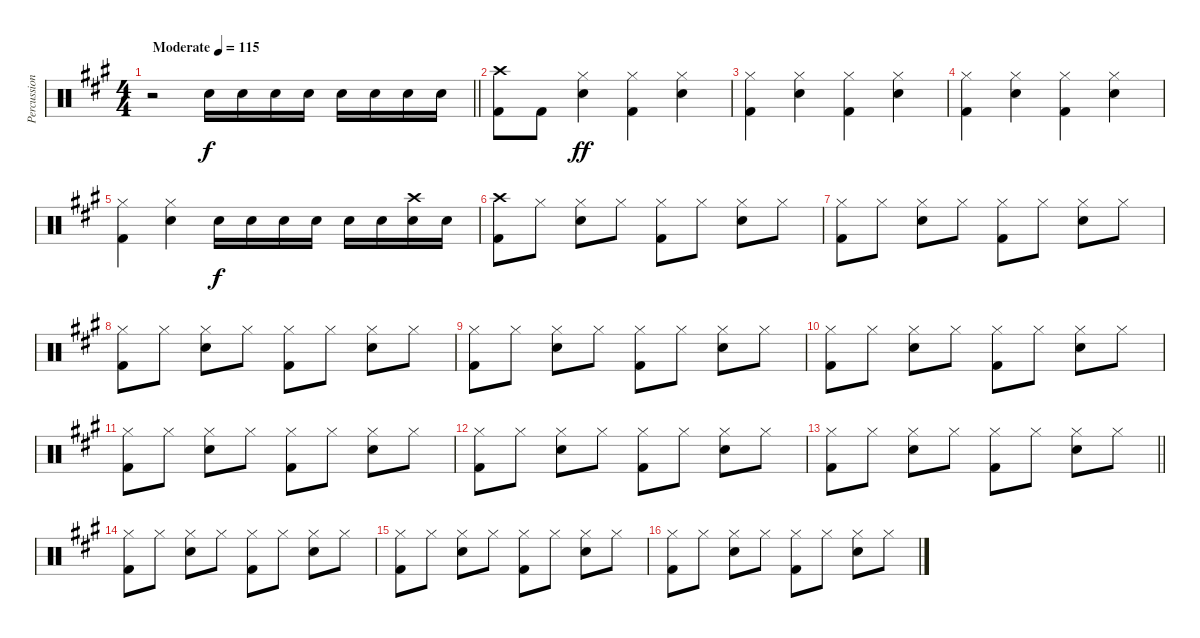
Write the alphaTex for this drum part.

\track ("Percussion" "Percussion") {instrument percussion}
\staff {score}
\articulation defaults
\ts (4 4)
\tempo (115 "Moderate")
\clef neutral
\barLineRight lightlight
\ks a
r.2{dy f} "Snare (hit) 2".16 "Snare (hit) 2".16 "Snare (hit) 2".16 "Snare (hit) 2".16 "Snare (hit) 2".16 "Snare (hit) 2".16 "Snare (hit) 2".16 "Snare (hit) 2".16 |
("Crash high (hit)" "Kick (hit) 2").8 "Kick (hit) 2".8 ("Hi-Hat (closed)" "Snare (hit) 2").4{dy ff} ("Hi-Hat (closed)" "Kick (hit) 2").4 ("Hi-Hat (closed)" "Snare (hit) 2").4 |
("Hi-Hat (closed)" "Kick (hit) 2").4 ("Hi-Hat (closed)" "Snare (hit) 2").4 ("Hi-Hat (closed)" "Kick (hit) 2").4 ("Hi-Hat (closed)" "Snare (hit) 2").4 |
("Hi-Hat (closed)" "Kick (hit) 2").4 ("Hi-Hat (closed)" "Snare (hit) 2").4 ("Hi-Hat (closed)" "Kick (hit) 2").4 ("Hi-Hat (closed)" "Snare (hit) 2").4 |
("Hi-Hat (closed)" "Kick (hit) 2").4 ("Hi-Hat (closed)" "Snare (hit) 2").4 "Snare (hit) 2".16{dy f} "Snare (hit) 2".16 "Snare (hit) 2".16 "Snare (hit) 2".16 "Snare (hit) 2".16 "Snare (hit) 2".16 ("Crash high (hit)" "Snare (hit) 2").16 "Snare (hit) 2".16 |
("Crash high (hit)" "Kick (hit) 2").8 "Hi-Hat (closed)".8 ("Hi-Hat (closed)" "Snare (hit) 2").8 "Hi-Hat (closed)".8 ("Hi-Hat (closed)" "Kick (hit) 2").8 "Hi-Hat (closed)".8 ("Hi-Hat (closed)" "Snare (hit) 2").8 "Hi-Hat (closed)".8 |
("Hi-Hat (closed)" "Kick (hit) 2").8 "Hi-Hat (closed)".8 ("Hi-Hat (closed)" "Snare (hit) 2").8 "Hi-Hat (closed)".8 ("Hi-Hat (closed)" "Kick (hit) 2").8 "Hi-Hat (closed)".8 ("Hi-Hat (closed)" "Snare (hit) 2").8 "Hi-Hat (closed)".8 |
("Hi-Hat (closed)" "Kick (hit) 2").8 "Hi-Hat (closed)".8 ("Hi-Hat (closed)" "Snare (hit) 2").8 "Hi-Hat (closed)".8 ("Hi-Hat (closed)" "Kick (hit) 2").8 "Hi-Hat (closed)".8 ("Hi-Hat (closed)" "Snare (hit) 2").8 "Hi-Hat (closed)".8 |
("Hi-Hat (closed)" "Kick (hit) 2").8 "Hi-Hat (closed)".8 ("Hi-Hat (closed)" "Snare (hit) 2").8 "Hi-Hat (closed)".8 ("Hi-Hat (closed)" "Kick (hit) 2").8 "Hi-Hat (closed)".8 ("Hi-Hat (closed)" "Snare (hit) 2").8 "Hi-Hat (closed)".8 |
("Hi-Hat (closed)" "Kick (hit) 2").8 "Hi-Hat (closed)".8 ("Hi-Hat (closed)" "Snare (hit) 2").8 "Hi-Hat (closed)".8 ("Hi-Hat (closed)" "Kick (hit) 2").8 "Hi-Hat (closed)".8 ("Hi-Hat (closed)" "Snare (hit) 2").8 "Hi-Hat (closed)".8 |
("Hi-Hat (closed)" "Kick (hit) 2").8 "Hi-Hat (closed)".8 ("Hi-Hat (closed)" "Snare (hit) 2").8 "Hi-Hat (closed)".8 ("Hi-Hat (closed)" "Kick (hit) 2").8 "Hi-Hat (closed)".8 ("Hi-Hat (closed)" "Snare (hit) 2").8 "Hi-Hat (closed)".8 |
("Hi-Hat (closed)" "Kick (hit) 2").8 "Hi-Hat (closed)".8 ("Hi-Hat (closed)" "Snare (hit) 2").8 "Hi-Hat (closed)".8 ("Hi-Hat (closed)" "Kick (hit) 2").8 "Hi-Hat (closed)".8 ("Hi-Hat (closed)" "Snare (hit) 2").8 "Hi-Hat (closed)".8 |
\barLineRight lightlight
("Hi-Hat (closed)" "Kick (hit) 2").8 "Hi-Hat (closed)".8 ("Hi-Hat (closed)" "Snare (hit) 2").8 "Hi-Hat (closed)".8 ("Hi-Hat (closed)" "Kick (hit) 2").8 "Hi-Hat (closed)".8 ("Hi-Hat (closed)" "Snare (hit) 2").8 "Hi-Hat (closed)".8 |
("Hi-Hat (closed)" "Kick (hit) 2").8 "Hi-Hat (closed)".8 ("Hi-Hat (closed)" "Snare (hit) 2").8 "Hi-Hat (closed)".8 ("Hi-Hat (closed)" "Kick (hit) 2").8 "Hi-Hat (closed)".8 ("Hi-Hat (closed)" "Snare (hit) 2").8 "Hi-Hat (closed)".8 |
("Hi-Hat (closed)" "Kick (hit) 2").8 "Hi-Hat (closed)".8 ("Hi-Hat (closed)" "Snare (hit) 2").8 "Hi-Hat (closed)".8 ("Hi-Hat (closed)" "Kick (hit) 2").8 "Hi-Hat (closed)".8 ("Hi-Hat (closed)" "Snare (hit) 2").8 "Hi-Hat (closed)".8 |
("Hi-Hat (closed)" "Kick (hit) 2").8 "Hi-Hat (closed)".8 ("Hi-Hat (closed)" "Snare (hit) 2").8 "Hi-Hat (closed)".8 ("Hi-Hat (closed)" "Kick (hit) 2").8 "Hi-Hat (closed)".8 ("Hi-Hat (closed)" "Snare (hit) 2").8 "Hi-Hat (closed)".8
